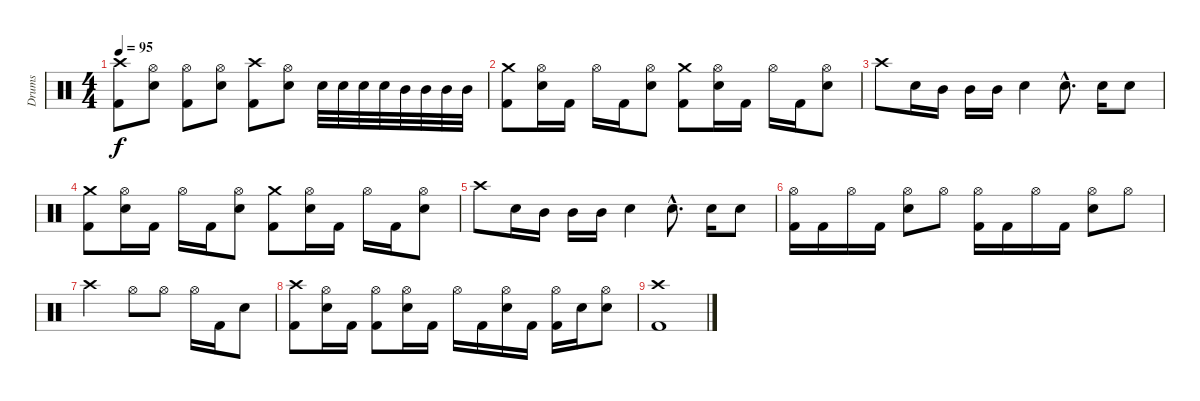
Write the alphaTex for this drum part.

\track ("Drums" "Drums") {instrument percussion}
\staff {score}
\articulation defaults
\ts (4 4)
\tempo 95
\clef neutral
\ks c
("Crash high (hit)" "Kick (hit) 2").8{dy f} ("Hi-Hat (open)" "Electric Snare (hit)").8 ("Hi-Hat (open)" "Kick (hit) 2").8 ("Hi-Hat (open)" "Electric Snare (hit)").8 ("Crash high (hit)" "Kick (hit) 2").8 ("Hi-Hat (open)" "Electric Snare (hit)").8 "Electric Snare (hit)".32 "Electric Snare (hit)".32 "Electric Snare (hit)".32 "Electric Snare (hit)".32 "Mid Tom (hit)".32 "Mid Tom (hit)".32 "Mid Tom (hit)".32 "Mid Tom (hit)".32 |
("Crash medium (hit)" "Kick (hit) 2").8 ("Hi-Hat (open)" "Electric Snare (hit)").16 "Kick (hit) 2".16 "Hi-Hat (open)".16 "Kick (hit) 2".16 ("Hi-Hat (open)" "Electric Snare (hit)").8 ("Crash medium (hit)" "Kick (hit) 2").8 ("Hi-Hat (open)" "Electric Snare (hit)").16 "Kick (hit) 2".16 "Hi-Hat (open)".16 "Kick (hit) 2".16 ("Hi-Hat (open)" "Electric Snare (hit)").8 |
"Crash high (hit)".8 "Electric Snare (hit)".16 "Mid Tom (hit)".16 "Mid Tom (hit)".16 "Mid Tom (hit)".16 "Electric Snare (hit)".4 "Electric Snare (hit)"{hac}.8{d} "Electric Snare (hit)".16 "Electric Snare (hit)".8 |
("Crash medium (hit)" "Kick (hit) 2").8 ("Hi-Hat (open)" "Electric Snare (hit)").16 "Kick (hit) 2".16 "Hi-Hat (open)".16 "Kick (hit) 2".16 ("Hi-Hat (open)" "Electric Snare (hit)").8 ("Crash medium (hit)" "Kick (hit) 2").8 ("Hi-Hat (open)" "Electric Snare (hit)").16 "Kick (hit) 2".16 "Hi-Hat (open)".16 "Kick (hit) 2".16 ("Hi-Hat (open)" "Electric Snare (hit)").8 |
"Crash high (hit)".8 "Electric Snare (hit)".16 "Mid Tom (hit)".16 "Mid Tom (hit)".16 "Mid Tom (hit)".16 "Electric Snare (hit)".4 "Electric Snare (hit)"{hac}.8{d} "Electric Snare (hit)".16 "Electric Snare (hit)".8 |
("Hi-Hat (open)" "Kick (hit) 2").16 "Kick (hit) 2".16 "Hi-Hat (open)".16 "Kick (hit) 2".16 ("Hi-Hat (open)" "Electric Snare (hit)").8 "Hi-Hat (open)".8 ("Hi-Hat (open)" "Kick (hit) 2").16 "Kick (hit) 2".16 "Hi-Hat (open)".16 "Kick (hit) 2".16 ("Hi-Hat (open)" "Electric Snare (hit)").8 "Hi-Hat (open)".8 |
"Crash high (hit)".2 "Hi-Hat (open)".8 "Hi-Hat (open)".8 "Hi-Hat (open)".16 "Kick (hit) 2".16 "Electric Snare (hit)".8 |
("Crash high (hit)" "Kick (hit) 2").8 ("Hi-Hat (open)" "Electric Snare (hit)").16 "Kick (hit) 2".16 ("Hi-Hat (open)" "Kick (hit) 2").8 ("Hi-Hat (open)" "Electric Snare (hit)").16 "Kick (hit) 2".16 "Hi-Hat (open)".16 "Kick (hit) 2".16 ("Hi-Hat (open)" "Electric Snare (hit)").16 "Kick (hit) 2".16 ("Hi-Hat (open)" "Kick (hit) 2").16 "Electric Snare (hit)".16 ("Hi-Hat (open)" "Electric Snare (hit)").8 |
("Crash high (hit)" "Kick (hit) 2").1
